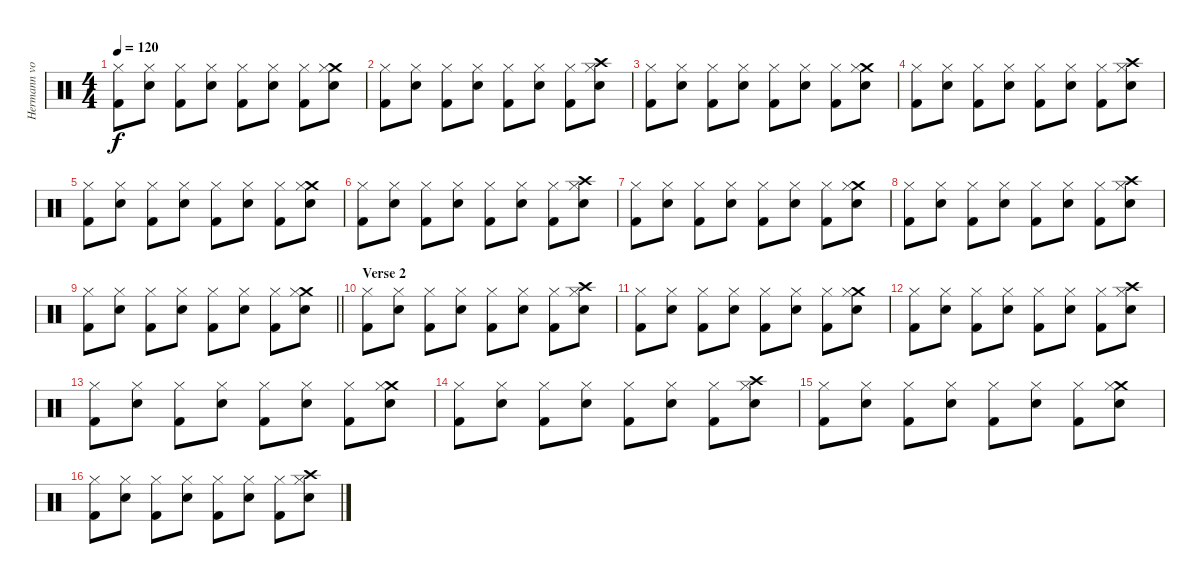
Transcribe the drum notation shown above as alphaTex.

\track ("Hermann von Hinten (Drums)" "Hermann vo") {instrument percussion}
\staff {score}
\articulation defaults
\ts (4 4)
\tempo 120
\clef neutral
\ks c
("Hi-Hat (closed)" "Kick (hit) 2").8{dy f} ("Hi-Hat (closed)" "Snare (hit) 2").8 ("Hi-Hat (closed)" "Kick (hit) 2").8 ("Hi-Hat (closed)" "Snare (hit) 2").8 ("Hi-Hat (closed)" "Kick (hit) 2").8 ("Hi-Hat (closed)" "Snare (hit) 2").8 ("Hi-Hat (closed)" "Kick (hit) 2").8 ("Crash medium (hit)" "Hi-Hat (closed)" "Snare (hit) 2").8 |
("Hi-Hat (closed)" "Kick (hit) 2").8 ("Hi-Hat (closed)" "Snare (hit) 2").8 ("Hi-Hat (closed)" "Kick (hit) 2").8 ("Hi-Hat (closed)" "Snare (hit) 2").8 ("Hi-Hat (closed)" "Kick (hit) 2").8 ("Hi-Hat (closed)" "Snare (hit) 2").8 ("Hi-Hat (closed)" "Kick (hit) 2").8 ("Crash high (hit)" "Hi-Hat (closed)" "Snare (hit) 2").8 |
("Hi-Hat (closed)" "Kick (hit) 2").8 ("Hi-Hat (closed)" "Snare (hit) 2").8 ("Hi-Hat (closed)" "Kick (hit) 2").8 ("Hi-Hat (closed)" "Snare (hit) 2").8 ("Hi-Hat (closed)" "Kick (hit) 2").8 ("Hi-Hat (closed)" "Snare (hit) 2").8 ("Hi-Hat (closed)" "Kick (hit) 2").8 ("Crash medium (hit)" "Hi-Hat (closed)" "Snare (hit) 2").8 |
("Hi-Hat (closed)" "Kick (hit) 2").8 ("Hi-Hat (closed)" "Snare (hit) 2").8 ("Hi-Hat (closed)" "Kick (hit) 2").8 ("Hi-Hat (closed)" "Snare (hit) 2").8 ("Hi-Hat (closed)" "Kick (hit) 2").8 ("Hi-Hat (closed)" "Snare (hit) 2").8 ("Hi-Hat (closed)" "Kick (hit) 2").8 ("Crash high (hit)" "Hi-Hat (closed)" "Snare (hit) 2").8 |
("Hi-Hat (closed)" "Kick (hit) 2").8 ("Hi-Hat (closed)" "Snare (hit) 2").8 ("Hi-Hat (closed)" "Kick (hit) 2").8 ("Hi-Hat (closed)" "Snare (hit) 2").8 ("Hi-Hat (closed)" "Kick (hit) 2").8 ("Hi-Hat (closed)" "Snare (hit) 2").8 ("Hi-Hat (closed)" "Kick (hit) 2").8 ("Crash medium (hit)" "Hi-Hat (closed)" "Snare (hit) 2").8 |
("Hi-Hat (closed)" "Kick (hit) 2").8 ("Hi-Hat (closed)" "Snare (hit) 2").8 ("Hi-Hat (closed)" "Kick (hit) 2").8 ("Hi-Hat (closed)" "Snare (hit) 2").8 ("Hi-Hat (closed)" "Kick (hit) 2").8 ("Hi-Hat (closed)" "Snare (hit) 2").8 ("Hi-Hat (closed)" "Kick (hit) 2").8 ("Crash high (hit)" "Hi-Hat (closed)" "Snare (hit) 2").8 |
("Hi-Hat (closed)" "Kick (hit) 2").8 ("Hi-Hat (closed)" "Snare (hit) 2").8 ("Hi-Hat (closed)" "Kick (hit) 2").8 ("Hi-Hat (closed)" "Snare (hit) 2").8 ("Hi-Hat (closed)" "Kick (hit) 2").8 ("Hi-Hat (closed)" "Snare (hit) 2").8 ("Hi-Hat (closed)" "Kick (hit) 2").8 ("Crash medium (hit)" "Hi-Hat (closed)" "Snare (hit) 2").8 |
("Hi-Hat (closed)" "Kick (hit) 2").8 ("Hi-Hat (closed)" "Snare (hit) 2").8 ("Hi-Hat (closed)" "Kick (hit) 2").8 ("Hi-Hat (closed)" "Snare (hit) 2").8 ("Hi-Hat (closed)" "Kick (hit) 2").8 ("Hi-Hat (closed)" "Snare (hit) 2").8 ("Hi-Hat (closed)" "Kick (hit) 2").8 ("Crash high (hit)" "Hi-Hat (closed)" "Snare (hit) 2").8 |
\barLineRight lightlight
("Hi-Hat (closed)" "Kick (hit) 2").8 ("Hi-Hat (closed)" "Snare (hit) 2").8 ("Hi-Hat (closed)" "Kick (hit) 2").8 ("Hi-Hat (closed)" "Snare (hit) 2").8 ("Hi-Hat (closed)" "Kick (hit) 2").8 ("Hi-Hat (closed)" "Snare (hit) 2").8 ("Hi-Hat (closed)" "Kick (hit) 2").8 ("Crash medium (hit)" "Hi-Hat (closed)" "Snare (hit) 2").8 |
\section ("" "Verse 2")
("Hi-Hat (closed)" "Kick (hit) 2").8 ("Hi-Hat (closed)" "Snare (hit) 2").8 ("Hi-Hat (closed)" "Kick (hit) 2").8 ("Hi-Hat (closed)" "Snare (hit) 2").8 ("Hi-Hat (closed)" "Kick (hit) 2").8 ("Hi-Hat (closed)" "Snare (hit) 2").8 ("Hi-Hat (closed)" "Kick (hit) 2").8 ("Crash high (hit)" "Hi-Hat (closed)" "Snare (hit) 2").8 |
("Hi-Hat (closed)" "Kick (hit) 2").8 ("Hi-Hat (closed)" "Snare (hit) 2").8 ("Hi-Hat (closed)" "Kick (hit) 2").8 ("Hi-Hat (closed)" "Snare (hit) 2").8 ("Hi-Hat (closed)" "Kick (hit) 2").8 ("Hi-Hat (closed)" "Snare (hit) 2").8 ("Hi-Hat (closed)" "Kick (hit) 2").8 ("Crash medium (hit)" "Hi-Hat (closed)" "Snare (hit) 2").8 |
("Hi-Hat (closed)" "Kick (hit) 2").8 ("Hi-Hat (closed)" "Snare (hit) 2").8 ("Hi-Hat (closed)" "Kick (hit) 2").8 ("Hi-Hat (closed)" "Snare (hit) 2").8 ("Hi-Hat (closed)" "Kick (hit) 2").8 ("Hi-Hat (closed)" "Snare (hit) 2").8 ("Hi-Hat (closed)" "Kick (hit) 2").8 ("Crash high (hit)" "Hi-Hat (closed)" "Snare (hit) 2").8 |
("Hi-Hat (closed)" "Kick (hit) 2").8 ("Hi-Hat (closed)" "Snare (hit) 2").8 ("Hi-Hat (closed)" "Kick (hit) 2").8 ("Hi-Hat (closed)" "Snare (hit) 2").8 ("Hi-Hat (closed)" "Kick (hit) 2").8 ("Hi-Hat (closed)" "Snare (hit) 2").8 ("Hi-Hat (closed)" "Kick (hit) 2").8 ("Crash medium (hit)" "Hi-Hat (closed)" "Snare (hit) 2").8 |
("Hi-Hat (closed)" "Kick (hit) 2").8 ("Hi-Hat (closed)" "Snare (hit) 2").8 ("Hi-Hat (closed)" "Kick (hit) 2").8 ("Hi-Hat (closed)" "Snare (hit) 2").8 ("Hi-Hat (closed)" "Kick (hit) 2").8 ("Hi-Hat (closed)" "Snare (hit) 2").8 ("Hi-Hat (closed)" "Kick (hit) 2").8 ("Crash high (hit)" "Hi-Hat (closed)" "Snare (hit) 2").8 |
("Hi-Hat (closed)" "Kick (hit) 2").8 ("Hi-Hat (closed)" "Snare (hit) 2").8 ("Hi-Hat (closed)" "Kick (hit) 2").8 ("Hi-Hat (closed)" "Snare (hit) 2").8 ("Hi-Hat (closed)" "Kick (hit) 2").8 ("Hi-Hat (closed)" "Snare (hit) 2").8 ("Hi-Hat (closed)" "Kick (hit) 2").8 ("Crash medium (hit)" "Hi-Hat (closed)" "Snare (hit) 2").8 |
("Hi-Hat (closed)" "Kick (hit) 2").8 ("Hi-Hat (closed)" "Snare (hit) 2").8 ("Hi-Hat (closed)" "Kick (hit) 2").8 ("Hi-Hat (closed)" "Snare (hit) 2").8 ("Hi-Hat (closed)" "Kick (hit) 2").8 ("Hi-Hat (closed)" "Snare (hit) 2").8 ("Hi-Hat (closed)" "Kick (hit) 2").8 ("Crash high (hit)" "Hi-Hat (closed)" "Snare (hit) 2").8
